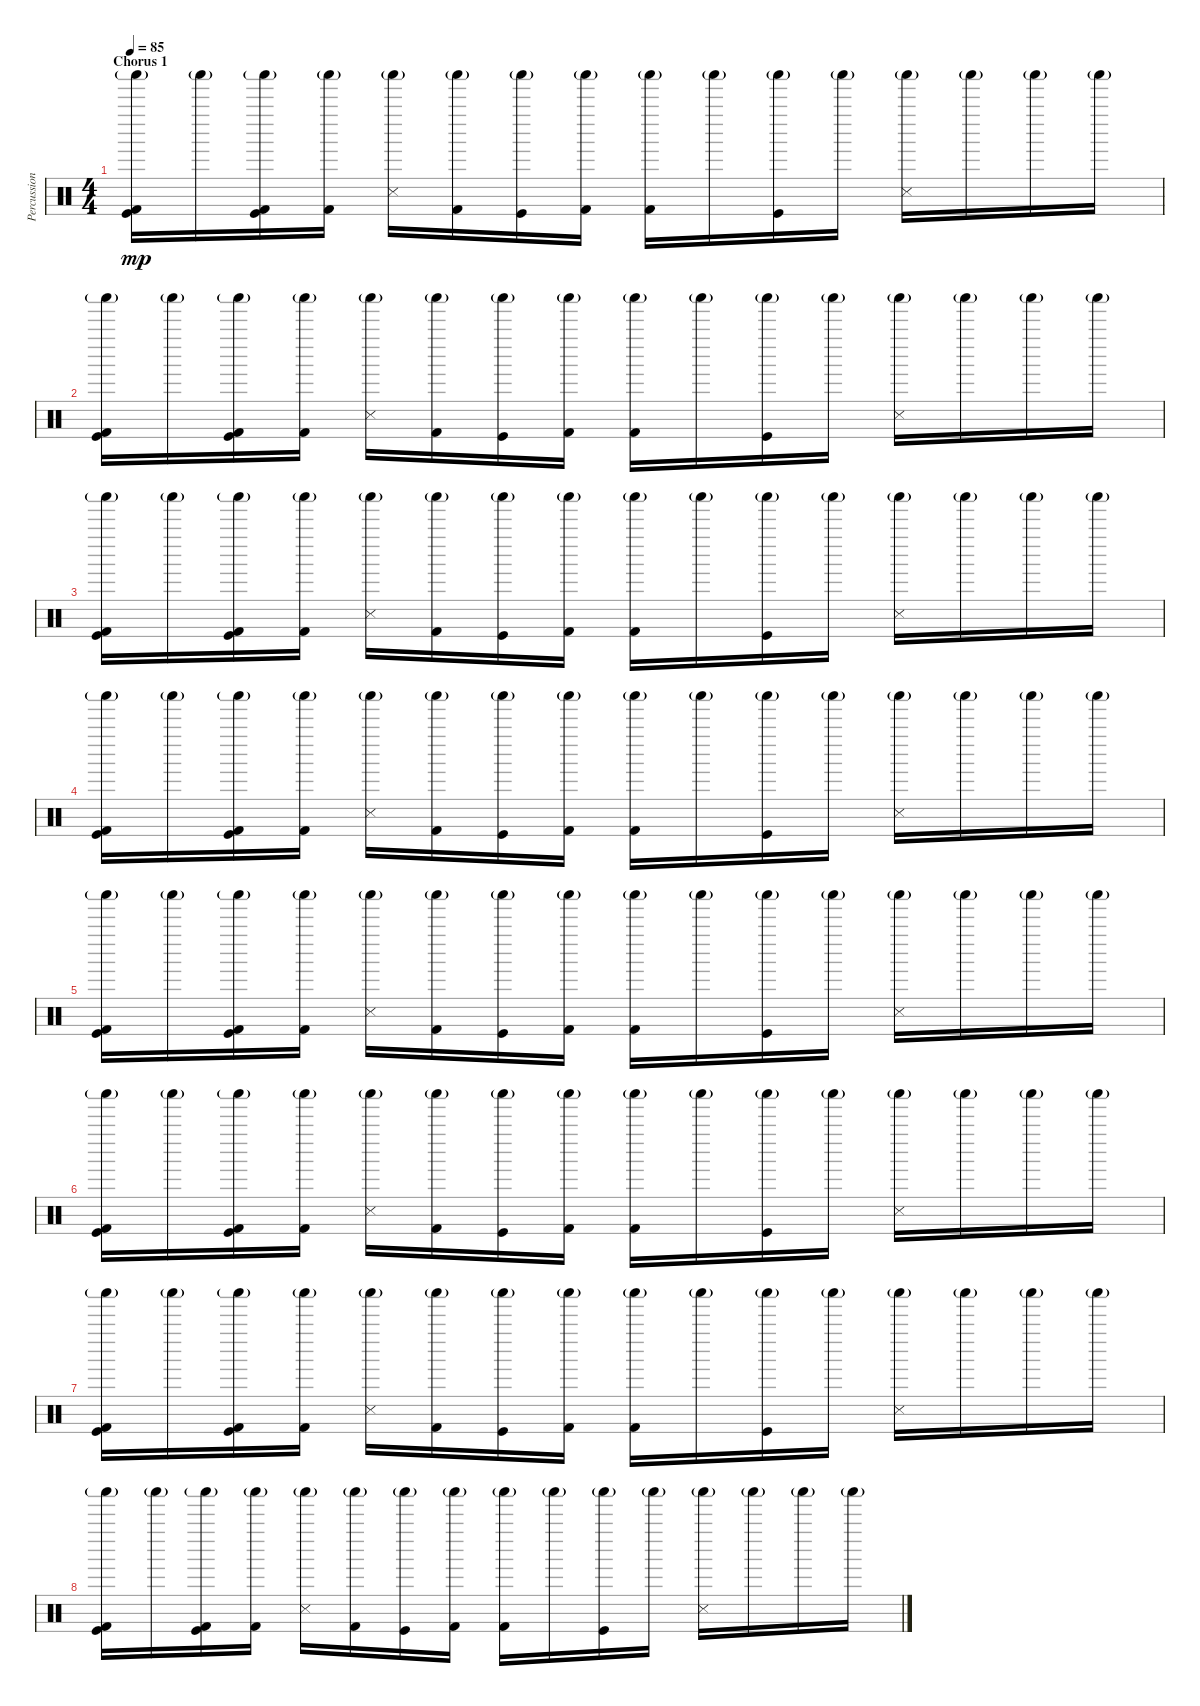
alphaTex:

\track ("Percussions" "Percussion") {instrument percussion}
\staff {score}
\articulation defaults
\ts (4 4)
\section ("" "Chorus 1")
\tempo 85
\clef neutral
\ks c
("Shaker (hit)"{g} "Kick (hit) 2" "Kick (hit)").16{dy mp} "Shaker (hit)"{g}.16 ("Shaker (hit)"{g} "Kick (hit) 2" "Kick (hit)").16 ("Shaker (hit)"{g} "Kick (hit) 2").16 ("Shaker (hit)"{g} "Snare (side stick) 3").16 ("Shaker (hit)"{g} "Kick (hit) 2").16 ("Shaker (hit)"{g} "Kick (hit)").16 ("Shaker (hit)"{g} "Kick (hit) 2").16 ("Shaker (hit)"{g} "Kick (hit) 2").16 "Shaker (hit)"{g}.16 ("Shaker (hit)"{g} "Kick (hit)").16 "Shaker (hit)"{g}.16 ("Shaker (hit)"{g} "Snare (side stick) 3").16 "Shaker (hit)"{g}.16 "Shaker (hit)"{g}.16 "Shaker (hit)"{g}.16 |
("Shaker (hit)"{g} "Kick (hit) 2" "Kick (hit)").16 "Shaker (hit)"{g}.16 ("Shaker (hit)"{g} "Kick (hit) 2" "Kick (hit)").16 ("Shaker (hit)"{g} "Kick (hit) 2").16 ("Shaker (hit)"{g} "Snare (side stick) 3").16 ("Shaker (hit)"{g} "Kick (hit) 2").16 ("Shaker (hit)"{g} "Kick (hit)").16 ("Shaker (hit)"{g} "Kick (hit) 2").16 ("Shaker (hit)"{g} "Kick (hit) 2").16 "Shaker (hit)"{g}.16 ("Shaker (hit)"{g} "Kick (hit)").16 "Shaker (hit)"{g}.16 ("Shaker (hit)"{g} "Snare (side stick) 3").16 "Shaker (hit)"{g}.16 "Shaker (hit)"{g}.16 "Shaker (hit)"{g}.16 |
("Shaker (hit)"{g} "Kick (hit) 2" "Kick (hit)").16 "Shaker (hit)"{g}.16 ("Shaker (hit)"{g} "Kick (hit) 2" "Kick (hit)").16 ("Shaker (hit)"{g} "Kick (hit) 2").16 ("Shaker (hit)"{g} "Snare (side stick) 3").16 ("Shaker (hit)"{g} "Kick (hit) 2").16 ("Shaker (hit)"{g} "Kick (hit)").16 ("Shaker (hit)"{g} "Kick (hit) 2").16 ("Shaker (hit)"{g} "Kick (hit) 2").16 "Shaker (hit)"{g}.16 ("Shaker (hit)"{g} "Kick (hit)").16 "Shaker (hit)"{g}.16 ("Shaker (hit)"{g} "Snare (side stick) 3").16 "Shaker (hit)"{g}.16 "Shaker (hit)"{g}.16 "Shaker (hit)"{g}.16 |
("Shaker (hit)"{g} "Kick (hit) 2" "Kick (hit)").16 "Shaker (hit)"{g}.16 ("Shaker (hit)"{g} "Kick (hit) 2" "Kick (hit)").16 ("Shaker (hit)"{g} "Kick (hit) 2").16 ("Shaker (hit)"{g} "Snare (side stick) 3").16 ("Shaker (hit)"{g} "Kick (hit) 2").16 ("Shaker (hit)"{g} "Kick (hit)").16 ("Shaker (hit)"{g} "Kick (hit) 2").16 ("Shaker (hit)"{g} "Kick (hit) 2").16 "Shaker (hit)"{g}.16 ("Shaker (hit)"{g} "Kick (hit)").16 "Shaker (hit)"{g}.16 ("Shaker (hit)"{g} "Snare (side stick) 3").16 "Shaker (hit)"{g}.16 "Shaker (hit)"{g}.16 "Shaker (hit)"{g}.16 |
("Shaker (hit)"{g} "Kick (hit) 2" "Kick (hit)").16 "Shaker (hit)"{g}.16 ("Shaker (hit)"{g} "Kick (hit) 2" "Kick (hit)").16 ("Shaker (hit)"{g} "Kick (hit) 2").16 ("Shaker (hit)"{g} "Snare (side stick) 3").16 ("Shaker (hit)"{g} "Kick (hit) 2").16 ("Shaker (hit)"{g} "Kick (hit)").16 ("Shaker (hit)"{g} "Kick (hit) 2").16 ("Shaker (hit)"{g} "Kick (hit) 2").16 "Shaker (hit)"{g}.16 ("Shaker (hit)"{g} "Kick (hit)").16 "Shaker (hit)"{g}.16 ("Shaker (hit)"{g} "Snare (side stick) 3").16 "Shaker (hit)"{g}.16 "Shaker (hit)"{g}.16 "Shaker (hit)"{g}.16 |
("Shaker (hit)"{g} "Kick (hit) 2" "Kick (hit)").16 "Shaker (hit)"{g}.16 ("Shaker (hit)"{g} "Kick (hit) 2" "Kick (hit)").16 ("Shaker (hit)"{g} "Kick (hit) 2").16 ("Shaker (hit)"{g} "Snare (side stick) 3").16 ("Shaker (hit)"{g} "Kick (hit) 2").16 ("Shaker (hit)"{g} "Kick (hit)").16 ("Shaker (hit)"{g} "Kick (hit) 2").16 ("Shaker (hit)"{g} "Kick (hit) 2").16 "Shaker (hit)"{g}.16 ("Shaker (hit)"{g} "Kick (hit)").16 "Shaker (hit)"{g}.16 ("Shaker (hit)"{g} "Snare (side stick) 3").16 "Shaker (hit)"{g}.16 "Shaker (hit)"{g}.16 "Shaker (hit)"{g}.16 |
("Shaker (hit)"{g} "Kick (hit) 2" "Kick (hit)").16 "Shaker (hit)"{g}.16 ("Shaker (hit)"{g} "Kick (hit) 2" "Kick (hit)").16 ("Shaker (hit)"{g} "Kick (hit) 2").16 ("Shaker (hit)"{g} "Snare (side stick) 3").16 ("Shaker (hit)"{g} "Kick (hit) 2").16 ("Shaker (hit)"{g} "Kick (hit)").16 ("Shaker (hit)"{g} "Kick (hit) 2").16 ("Shaker (hit)"{g} "Kick (hit) 2").16 "Shaker (hit)"{g}.16 ("Shaker (hit)"{g} "Kick (hit)").16 "Shaker (hit)"{g}.16 ("Shaker (hit)"{g} "Snare (side stick) 3").16 "Shaker (hit)"{g}.16 "Shaker (hit)"{g}.16 "Shaker (hit)"{g}.16 |
("Shaker (hit)"{g} "Kick (hit) 2" "Kick (hit)").16 "Shaker (hit)"{g}.16 ("Shaker (hit)"{g} "Kick (hit) 2" "Kick (hit)").16 ("Shaker (hit)"{g} "Kick (hit) 2").16 ("Shaker (hit)"{g} "Snare (side stick) 3").16 ("Shaker (hit)"{g} "Kick (hit) 2").16 ("Shaker (hit)"{g} "Kick (hit)").16 ("Shaker (hit)"{g} "Kick (hit) 2").16 ("Shaker (hit)"{g} "Kick (hit) 2").16 "Shaker (hit)"{g}.16 ("Shaker (hit)"{g} "Kick (hit)").16 "Shaker (hit)"{g}.16 ("Shaker (hit)"{g} "Snare (side stick) 3").16 "Shaker (hit)"{g}.16 "Shaker (hit)"{g}.16 "Shaker (hit)"{g}.16
